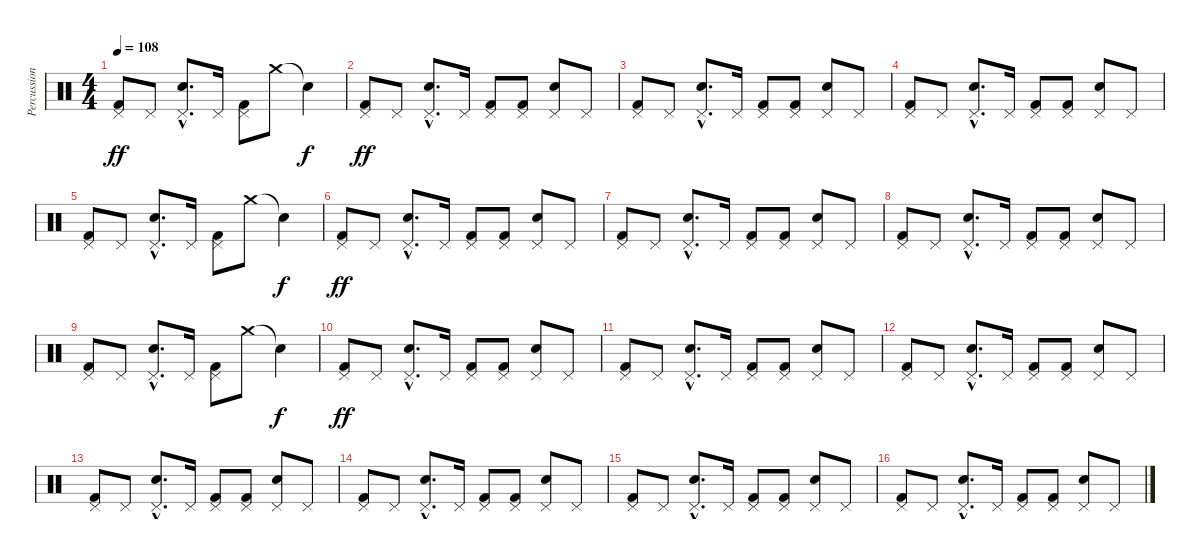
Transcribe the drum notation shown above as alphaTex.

\track ("Percussions" "Percussion") {instrument percussion}
\staff {score}
\articulation defaults
\ts (4 4)
\tempo 108
\clef neutral
\ks c
("Pedal Hi-Hat (hit)" "Kick (hit) 2").8{dy ff} "Pedal Hi-Hat (hit)".8 ("Pedal Hi-Hat (hit)"{hac} "Electric Snare (hit)"{hac}).8{d} "Pedal Hi-Hat (hit)".16 ("Pedal Hi-Hat (hit)" "Kick (hit) 2").8 "Crash medium (hit)".8 "Snare (hit)"{t}.4{dy f} |
("Pedal Hi-Hat (hit)" "Kick (hit) 2").8{dy ff} "Pedal Hi-Hat (hit)".8 ("Pedal Hi-Hat (hit)"{hac} "Electric Snare (hit)"{hac}).8{d} "Pedal Hi-Hat (hit)".16 ("Pedal Hi-Hat (hit)" "Kick (hit) 2").8 ("Pedal Hi-Hat (hit)" "Kick (hit) 2").8 ("Pedal Hi-Hat (hit)" "Electric Snare (hit)").8 "Pedal Hi-Hat (hit)".8 |
("Pedal Hi-Hat (hit)" "Kick (hit) 2").8 "Pedal Hi-Hat (hit)".8 ("Pedal Hi-Hat (hit)"{hac} "Electric Snare (hit)"{hac}).8{d} "Pedal Hi-Hat (hit)".16 ("Pedal Hi-Hat (hit)" "Kick (hit) 2").8 ("Pedal Hi-Hat (hit)" "Kick (hit) 2").8 ("Pedal Hi-Hat (hit)" "Electric Snare (hit)").8 "Pedal Hi-Hat (hit)".8 |
("Pedal Hi-Hat (hit)" "Kick (hit) 2").8 "Pedal Hi-Hat (hit)".8 ("Pedal Hi-Hat (hit)"{hac} "Electric Snare (hit)"{hac}).8{d} "Pedal Hi-Hat (hit)".16 ("Pedal Hi-Hat (hit)" "Kick (hit) 2").8 ("Pedal Hi-Hat (hit)" "Kick (hit) 2").8 ("Pedal Hi-Hat (hit)" "Electric Snare (hit)").8 "Pedal Hi-Hat (hit)".8 |
("Pedal Hi-Hat (hit)" "Kick (hit) 2").8 "Pedal Hi-Hat (hit)".8 ("Pedal Hi-Hat (hit)"{hac} "Electric Snare (hit)"{hac}).8{d} "Pedal Hi-Hat (hit)".16 ("Pedal Hi-Hat (hit)" "Kick (hit) 2").8 "Crash medium (hit)".8 "Snare (hit)"{t}.4{dy f} |
("Pedal Hi-Hat (hit)" "Kick (hit) 2").8{dy ff} "Pedal Hi-Hat (hit)".8 ("Pedal Hi-Hat (hit)"{hac} "Electric Snare (hit)"{hac}).8{d} "Pedal Hi-Hat (hit)".16 ("Pedal Hi-Hat (hit)" "Kick (hit) 2").8 ("Pedal Hi-Hat (hit)" "Kick (hit) 2").8 ("Pedal Hi-Hat (hit)" "Electric Snare (hit)").8 "Pedal Hi-Hat (hit)".8 |
("Pedal Hi-Hat (hit)" "Kick (hit) 2").8 "Pedal Hi-Hat (hit)".8 ("Pedal Hi-Hat (hit)"{hac} "Electric Snare (hit)"{hac}).8{d} "Pedal Hi-Hat (hit)".16 ("Pedal Hi-Hat (hit)" "Kick (hit) 2").8 ("Pedal Hi-Hat (hit)" "Kick (hit) 2").8 ("Pedal Hi-Hat (hit)" "Electric Snare (hit)").8 "Pedal Hi-Hat (hit)".8 |
("Pedal Hi-Hat (hit)" "Kick (hit) 2").8 "Pedal Hi-Hat (hit)".8 ("Pedal Hi-Hat (hit)"{hac} "Electric Snare (hit)"{hac}).8{d} "Pedal Hi-Hat (hit)".16 ("Pedal Hi-Hat (hit)" "Kick (hit) 2").8 ("Pedal Hi-Hat (hit)" "Kick (hit) 2").8 ("Pedal Hi-Hat (hit)" "Electric Snare (hit)").8 "Pedal Hi-Hat (hit)".8 |
("Pedal Hi-Hat (hit)" "Kick (hit) 2").8 "Pedal Hi-Hat (hit)".8 ("Pedal Hi-Hat (hit)"{hac} "Electric Snare (hit)"{hac}).8{d} "Pedal Hi-Hat (hit)".16 ("Pedal Hi-Hat (hit)" "Kick (hit) 2").8 "Crash medium (hit)".8 "Snare (hit)"{t}.4{dy f} |
("Pedal Hi-Hat (hit)" "Kick (hit) 2").8{dy ff} "Pedal Hi-Hat (hit)".8 ("Pedal Hi-Hat (hit)"{hac} "Electric Snare (hit)"{hac}).8{d} "Pedal Hi-Hat (hit)".16 ("Pedal Hi-Hat (hit)" "Kick (hit) 2").8 ("Pedal Hi-Hat (hit)" "Kick (hit) 2").8 ("Pedal Hi-Hat (hit)" "Electric Snare (hit)").8 "Pedal Hi-Hat (hit)".8 |
("Pedal Hi-Hat (hit)" "Kick (hit) 2").8 "Pedal Hi-Hat (hit)".8 ("Pedal Hi-Hat (hit)"{hac} "Electric Snare (hit)"{hac}).8{d} "Pedal Hi-Hat (hit)".16 ("Pedal Hi-Hat (hit)" "Kick (hit) 2").8 ("Pedal Hi-Hat (hit)" "Kick (hit) 2").8 ("Pedal Hi-Hat (hit)" "Electric Snare (hit)").8 "Pedal Hi-Hat (hit)".8 |
("Pedal Hi-Hat (hit)" "Kick (hit) 2").8 "Pedal Hi-Hat (hit)".8 ("Pedal Hi-Hat (hit)"{hac} "Electric Snare (hit)"{hac}).8{d} "Pedal Hi-Hat (hit)".16 ("Pedal Hi-Hat (hit)" "Kick (hit) 2").8 ("Pedal Hi-Hat (hit)" "Kick (hit) 2").8 ("Pedal Hi-Hat (hit)" "Electric Snare (hit)").8 "Pedal Hi-Hat (hit)".8 |
("Pedal Hi-Hat (hit)" "Kick (hit) 2").8 "Pedal Hi-Hat (hit)".8 ("Pedal Hi-Hat (hit)"{hac} "Electric Snare (hit)"{hac}).8{d} "Pedal Hi-Hat (hit)".16 ("Pedal Hi-Hat (hit)" "Kick (hit) 2").8 ("Pedal Hi-Hat (hit)" "Kick (hit) 2").8 ("Pedal Hi-Hat (hit)" "Electric Snare (hit)").8 "Pedal Hi-Hat (hit)".8 |
("Pedal Hi-Hat (hit)" "Kick (hit) 2").8 "Pedal Hi-Hat (hit)".8 ("Pedal Hi-Hat (hit)"{hac} "Electric Snare (hit)"{hac}).8{d} "Pedal Hi-Hat (hit)".16 ("Pedal Hi-Hat (hit)" "Kick (hit) 2").8 ("Pedal Hi-Hat (hit)" "Kick (hit) 2").8 ("Pedal Hi-Hat (hit)" "Electric Snare (hit)").8 "Pedal Hi-Hat (hit)".8 |
("Pedal Hi-Hat (hit)" "Kick (hit) 2").8 "Pedal Hi-Hat (hit)".8 ("Pedal Hi-Hat (hit)"{hac} "Electric Snare (hit)"{hac}).8{d} "Pedal Hi-Hat (hit)".16 ("Pedal Hi-Hat (hit)" "Kick (hit) 2").8 ("Pedal Hi-Hat (hit)" "Kick (hit) 2").8 ("Pedal Hi-Hat (hit)" "Electric Snare (hit)").8 "Pedal Hi-Hat (hit)".8 |
("Pedal Hi-Hat (hit)" "Kick (hit) 2").8 "Pedal Hi-Hat (hit)".8 ("Pedal Hi-Hat (hit)"{hac} "Electric Snare (hit)"{hac}).8{d} "Pedal Hi-Hat (hit)".16 ("Pedal Hi-Hat (hit)" "Kick (hit) 2").8 ("Pedal Hi-Hat (hit)" "Kick (hit) 2").8 ("Pedal Hi-Hat (hit)" "Electric Snare (hit)").8 "Pedal Hi-Hat (hit)".8
